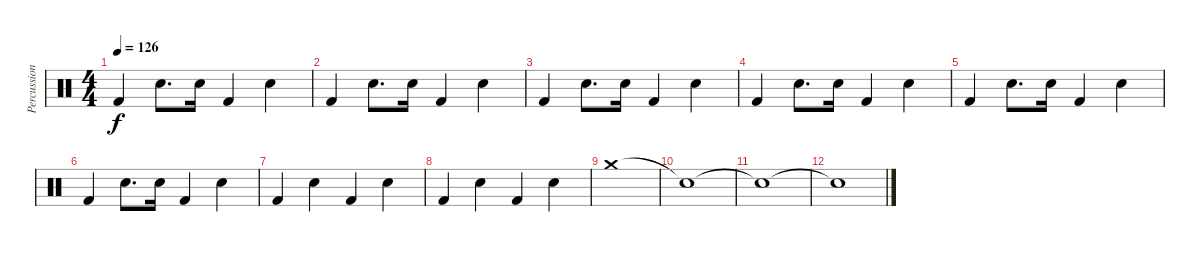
\track ("Percussion" "Percussion") {instrument percussion}
\staff {score}
\articulation defaults
\ts (4 4)
\tempo 126
\clef neutral
\ks c "Kick (hit) 2".4{dy f} "Electric Snare (hit)".8{d} "Electric Snare (hit)".16 "Kick (hit) 2".4 "Electric Snare (hit)".4
|
"Kick (hit) 2".4 "Electric Snare (hit)".8{d} "Electric Snare (hit)".16 "Kick (hit) 2".4 "Electric Snare (hit)".4 |
"Kick (hit) 2".4 "Electric Snare (hit)".8{d} "Electric Snare (hit)".16 "Kick (hit) 2".4 "Electric Snare (hit)".4 |
"Kick (hit) 2".4 "Electric Snare (hit)".8{d} "Electric Snare (hit)".16 "Kick (hit) 2".4 "Electric Snare (hit)".4 |
"Kick (hit) 2".4 "Electric Snare (hit)".8{d} "Electric Snare (hit)".16 "Kick (hit) 2".4 "Electric Snare (hit)".4 |
"Kick (hit) 2".4 "Electric Snare (hit)".8{d} "Electric Snare (hit)".16 "Kick (hit) 2".4 "Electric Snare (hit)".4 |
"Kick (hit) 2".4 "Electric Snare (hit)".4 "Kick (hit) 2".4 "Electric Snare (hit)".4 |
"Kick (hit) 2".4 "Electric Snare (hit)".4 "Kick (hit) 2".4 "Electric Snare (hit)".4 |
"Crash medium (hit)".1 |
"Snare (hit)"{t}.1 |
"Snare (hit)"{t}.1 |
"Snare (hit)"{t}.1
